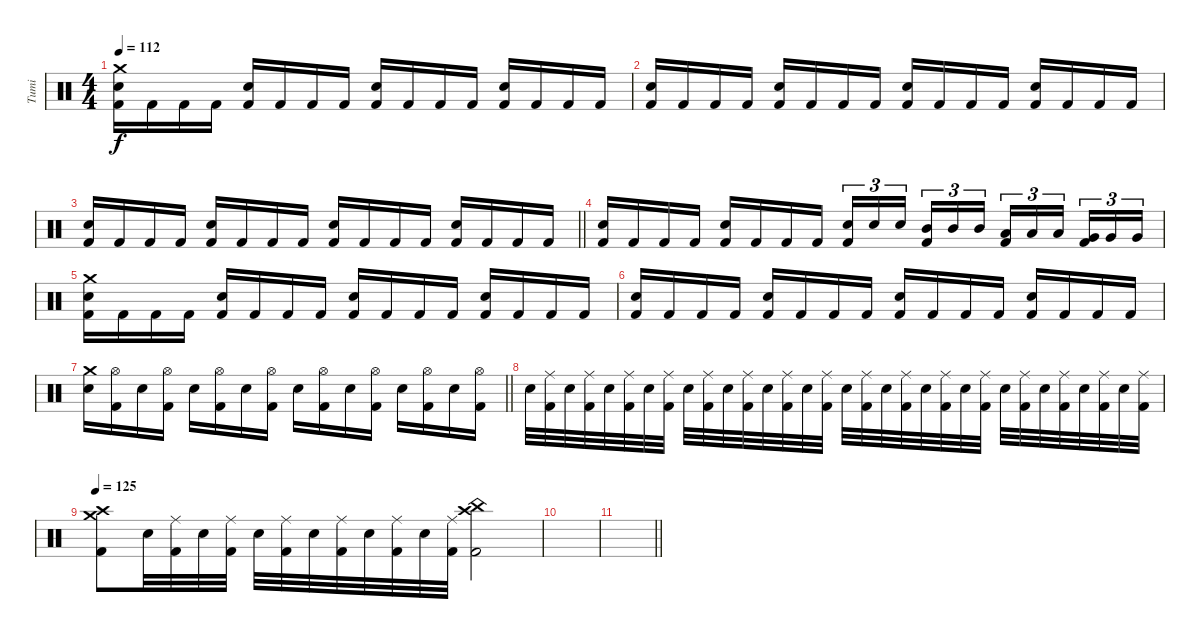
\track ("Tumi" "Tumi") {instrument percussion}
\staff {score}
\articulation defaults
\ts (4 4)
\tempo 112
\clef neutral
\ks c
("Crash medium (hit)" "Electric Snare (hit)" "Kick (hit) 2").16{dy f} "Kick (hit) 2".16 "Kick (hit) 2".16 "Kick (hit) 2".16 ("Electric Snare (hit)" "Kick (hit) 2").16 "Kick (hit) 2".16 "Kick (hit) 2".16 "Kick (hit) 2".16 ("Electric Snare (hit)" "Kick (hit) 2").16 "Kick (hit) 2".16 "Kick (hit) 2".16 "Kick (hit) 2".16 ("Electric Snare (hit)" "Kick (hit) 2").16 "Kick (hit) 2".16 "Kick (hit) 2".16 "Kick (hit) 2".16 |
("Electric Snare (hit)" "Kick (hit) 2").16 "Kick (hit) 2".16 "Kick (hit) 2".16 "Kick (hit) 2".16 ("Electric Snare (hit)" "Kick (hit) 2").16 "Kick (hit) 2".16 "Kick (hit) 2".16 "Kick (hit) 2".16 ("Electric Snare (hit)" "Kick (hit) 2").16 "Kick (hit) 2".16 "Kick (hit) 2".16 "Kick (hit) 2".16 ("Electric Snare (hit)" "Kick (hit) 2").16 "Kick (hit) 2".16 "Kick (hit) 2".16 "Kick (hit) 2".16 |
\barLineRight lightlight
("Electric Snare (hit)" "Kick (hit) 2").16 "Kick (hit) 2".16 "Kick (hit) 2".16 "Kick (hit) 2".16 ("Electric Snare (hit)" "Kick (hit) 2").16 "Kick (hit) 2".16 "Kick (hit) 2".16 "Kick (hit) 2".16 ("Electric Snare (hit)" "Kick (hit) 2").16 "Kick (hit) 2".16 "Kick (hit) 2".16 "Kick (hit) 2".16 ("Electric Snare (hit)" "Kick (hit) 2").16 "Kick (hit) 2".16 "Kick (hit) 2".16 "Kick (hit) 2".16 |
("Electric Snare (hit)" "Kick (hit) 2").16 "Kick (hit) 2".16 "Kick (hit) 2".16 "Kick (hit) 2".16 ("Electric Snare (hit)" "Kick (hit) 2").16 "Kick (hit) 2".16 "Kick (hit) 2".16 "Kick (hit) 2".16 ("Electric Snare (hit)" "Kick (hit) 2").16{tu (3 2)} "Electric Snare (hit)".16{tu (3 2)} "Electric Snare (hit)".16{tu (3 2) beam splitsecondary} ("Mid Tom (hit)" "Kick (hit) 2").16{tu (3 2)} "Mid Tom (hit)".16{tu (3 2)} "Mid Tom (hit)".16{tu (3 2)} ("Low Tom (hit)" "Kick (hit) 2").16{tu (3 2)} "Low Tom (hit)".16{tu (3 2)} "Low Tom (hit)".16{tu (3 2) beam splitsecondary} ("Very Low Tom (hit)" "Kick (hit) 2").16{tu (3 2)} "Very Low Tom (hit)".16{tu (3 2)} "Very Low Tom (hit)".16{tu (3 2)} |
("Crash medium (hit)" "Electric Snare (hit)" "Kick (hit) 2").16 "Kick (hit) 2".16 "Kick (hit) 2".16 "Kick (hit) 2".16 ("Electric Snare (hit)" "Kick (hit) 2").16 "Kick (hit) 2".16 "Kick (hit) 2".16 "Kick (hit) 2".16 ("Electric Snare (hit)" "Kick (hit) 2").16 "Kick (hit) 2".16 "Kick (hit) 2".16 "Kick (hit) 2".16 ("Electric Snare (hit)" "Kick (hit) 2").16 "Kick (hit) 2".16 "Kick (hit) 2".16 "Kick (hit) 2".16 |
("Electric Snare (hit)" "Kick (hit) 2").16 "Kick (hit) 2".16 "Kick (hit) 2".16 "Kick (hit) 2".16 ("Electric Snare (hit)" "Kick (hit) 2").16 "Kick (hit) 2".16 "Kick (hit) 2".16 "Kick (hit) 2".16 ("Electric Snare (hit)" "Kick (hit) 2").16 "Kick (hit) 2".16 "Kick (hit) 2".16 "Kick (hit) 2".16 ("Electric Snare (hit)" "Kick (hit) 2").16 "Kick (hit) 2".16 "Kick (hit) 2".16 "Kick (hit) 2".16 |
\barLineRight lightlight
("Crash medium (hit)" "Electric Snare (hit)").16 ("Hi-Hat (open)" "Kick (hit) 2").16 "Electric Snare (hit)".16 ("Hi-Hat (open)" "Kick (hit) 2").16 "Electric Snare (hit)".16 ("Hi-Hat (open)" "Kick (hit) 2").16 "Electric Snare (hit)".16 ("Hi-Hat (open)" "Kick (hit) 2").16 "Electric Snare (hit)".16 ("Hi-Hat (open)" "Kick (hit) 2").16 "Electric Snare (hit)".16 ("Hi-Hat (open)" "Kick (hit) 2").16 "Electric Snare (hit)".16 ("Hi-Hat (open)" "Kick (hit) 2").16 "Electric Snare (hit)".16 ("Hi-Hat (open)" "Kick (hit) 2").16 |
"Electric Snare (hit)".32 ("Ride (middle)" "Kick (hit) 2").32 "Electric Snare (hit)".32 ("Ride (middle)" "Kick (hit) 2").32 "Electric Snare (hit)".32 ("Ride (middle)" "Kick (hit) 2").32 "Electric Snare (hit)".32 ("Ride (middle)" "Kick (hit) 2").32 "Electric Snare (hit)".32 ("Ride (middle)" "Kick (hit) 2").32 "Electric Snare (hit)".32 ("Ride (middle)" "Kick (hit) 2").32 "Electric Snare (hit)".32 ("Ride (middle)" "Kick (hit) 2").32 "Electric Snare (hit)".32 ("Ride (middle)" "Kick (hit) 2").32 "Electric Snare (hit)".32 ("Ride (middle)" "Kick (hit) 2").32 "Electric Snare (hit)".32 ("Ride (middle)" "Kick (hit) 2").32 "Electric Snare (hit)".32 ("Ride (middle)" "Kick (hit) 2").32 "Electric Snare (hit)".32 ("Ride (middle)" "Kick (hit) 2").32 "Electric Snare (hit)".32 ("Ride (middle)" "Kick (hit) 2").32 "Electric Snare (hit)".32 ("Ride (middle)" "Kick (hit) 2").32 "Electric Snare (hit)".32 ("Ride (middle)" "Kick (hit) 2").32 "Electric Snare (hit)".32 ("Ride (middle)" "Kick (hit) 2").32 |
\tempo 125
("Crash medium (hit)" "Crash high (hit)" "Kick (hit) 2").8 "Electric Snare (hit)".32 ("Ride (middle)" "Kick (hit) 2").32 "Electric Snare (hit)".32 ("Ride (middle)" "Kick (hit) 2").32 "Electric Snare (hit)".32 ("Ride (middle)" "Kick (hit) 2").32 "Electric Snare (hit)".32 ("Ride (middle)" "Kick (hit) 2").32 "Electric Snare (hit)".32 ("Ride (middle)" "Kick (hit) 2").32 "Electric Snare (hit)".32 ("Ride (middle)" "Kick (hit) 2").32 ("Crash high (hit)" "China (hit)" "Kick (hit) 2").2 |
|
\barLineRight lightlight
